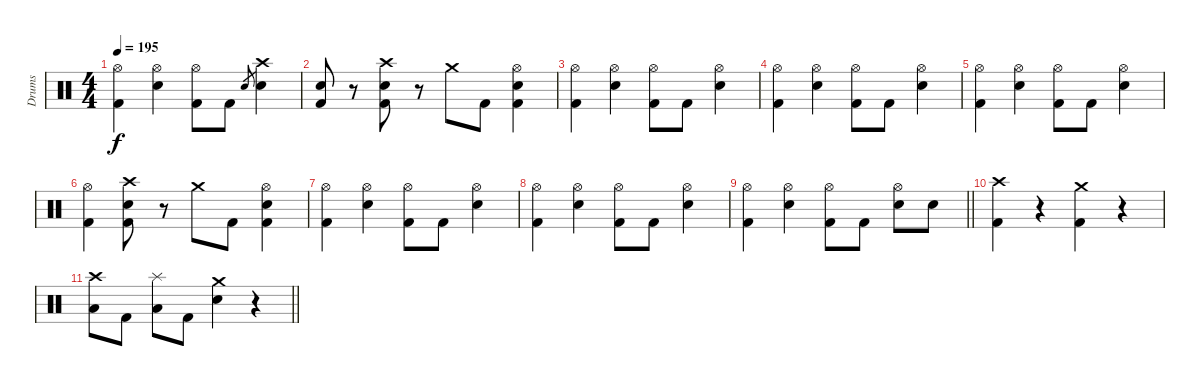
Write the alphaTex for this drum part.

\track ("Drums" "Drums") {instrument percussion}
\staff {score}
\articulation defaults
\ts (4 4)
\tempo 195
\clef neutral
\ks c
("Hi-Hat (open)" "Kick (hit) 2").4{dy f} ("Hi-Hat (open)" "Snare (hit) 2").4 ("Hi-Hat (open)" "Kick (hit) 2").8 "Kick (hit) 2".8 "Snare (hit) 2".8{gr} ("Crash high (hit)" "Snare (hit) 2").4 |
("Snare (hit) 2" "Kick (hit) 2").8 r.8 ("Crash high (hit)" "Snare (hit) 2" "Kick (hit) 2").8 r.8 "Crash medium (hit)".8 "Kick (hit) 2".8 ("Hi-Hat (open)" "Snare (hit) 2" "Kick (hit) 2").4 |
("Hi-Hat (open)" "Kick (hit) 2").4 ("Hi-Hat (open)" "Snare (hit) 2").4 ("Hi-Hat (open)" "Kick (hit) 2").8 "Kick (hit) 2".8 ("Hi-Hat (open)" "Snare (hit) 2").4 |
("Hi-Hat (open)" "Kick (hit) 2").4 ("Hi-Hat (open)" "Snare (hit) 2").4 ("Hi-Hat (open)" "Kick (hit) 2").8 "Kick (hit) 2".8 ("Hi-Hat (open)" "Snare (hit) 2").4 |
("Hi-Hat (open)" "Kick (hit) 2").4 ("Hi-Hat (open)" "Snare (hit) 2").4 ("Hi-Hat (open)" "Kick (hit) 2").8 "Kick (hit) 2".8 ("Hi-Hat (open)" "Snare (hit) 2").4 |
("Hi-Hat (open)" "Kick (hit) 2").4 ("Crash high (hit)" "Snare (hit) 2" "Kick (hit) 2").8 r.8 "Crash medium (hit)".8 "Kick (hit) 2".8 ("Hi-Hat (open)" "Snare (hit) 2" "Kick (hit) 2").4 |
("Hi-Hat (open)" "Kick (hit) 2").4 ("Hi-Hat (open)" "Snare (hit) 2").4 ("Hi-Hat (open)" "Kick (hit) 2").8 "Kick (hit) 2".8 ("Hi-Hat (open)" "Snare (hit) 2").4 |
("Hi-Hat (open)" "Kick (hit) 2").4 ("Hi-Hat (open)" "Snare (hit) 2").4 ("Hi-Hat (open)" "Kick (hit) 2").8 "Kick (hit) 2".8 ("Hi-Hat (open)" "Snare (hit) 2").4 |
\barLineRight lightlight
("Hi-Hat (open)" "Kick (hit) 2").4 ("Hi-Hat (open)" "Snare (hit) 2").4 ("Hi-Hat (open)" "Kick (hit) 2").8 "Kick (hit) 2".8 ("Hi-Hat (open)" "Snare (hit) 2").8 "Snare (hit) 2".8 |
("Crash high (hit)" "Kick (hit) 2").4 r.4 ("Crash medium (hit)" "Kick (hit) 2").4 r.4 |
\barLineRight lightlight
("Crash high (hit)" "Low Tom (hit)").8 "Kick (hit) 2".8 ("Splash (hit)" "Low Tom (hit)").8 "Kick (hit) 2".8 ("Crash medium (hit)" "Snare (hit) 2").4 r.4
